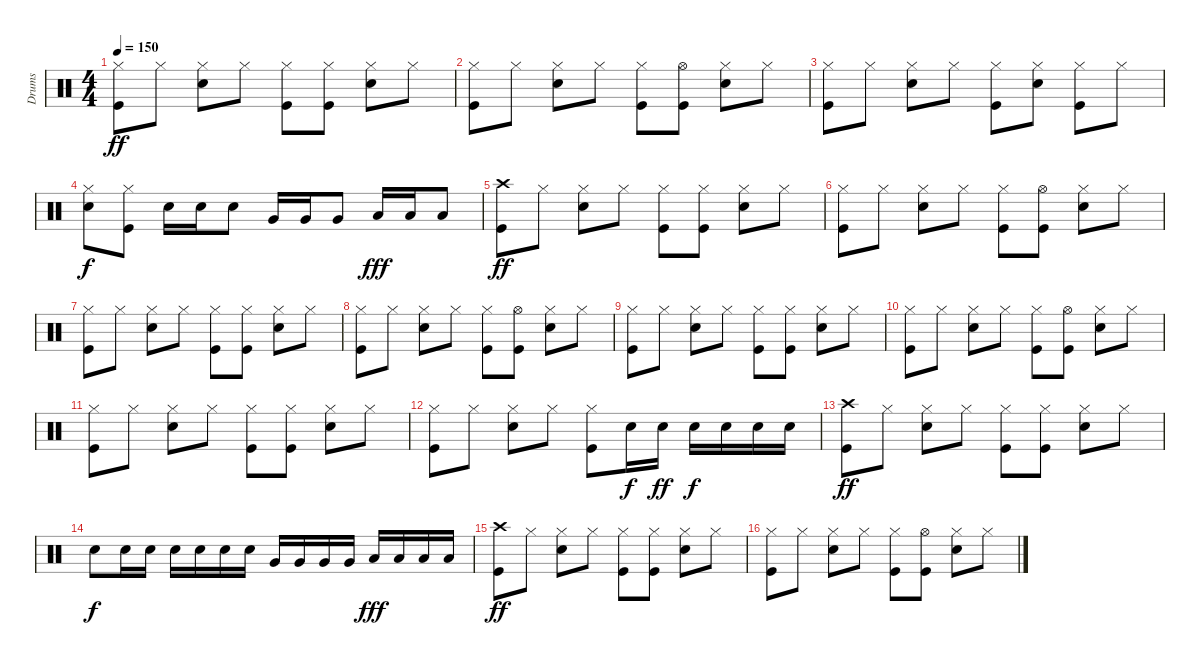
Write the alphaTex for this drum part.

\track ("Drums" "Drums") {instrument percussion}
\staff {score}
\articulation defaults
\ts (4 4)
\tempo 150
\clef neutral
\ks c
("Hi-Hat (closed)" "Kick (hit)").8{dy ff} "Hi-Hat (closed)".8 ("Hi-Hat (closed)" "Snare (hit) 2").8 "Hi-Hat (closed)".8 ("Hi-Hat (closed)" "Kick (hit)").8 ("Hi-Hat (closed)" "Kick (hit)").8 ("Hi-Hat (closed)" "Snare (hit) 2").8 "Hi-Hat (closed)".8 |
("Hi-Hat (closed)" "Kick (hit)").8 "Hi-Hat (closed)".8 ("Hi-Hat (closed)" "Snare (hit) 2").8 "Hi-Hat (closed)".8 ("Hi-Hat (closed)" "Kick (hit)").8 ("Hi-Hat (open)" "Kick (hit)").8 ("Hi-Hat (closed)" "Snare (hit) 2").8 "Hi-Hat (closed)".8 |
("Hi-Hat (closed)" "Kick (hit)").8 "Hi-Hat (closed)".8 ("Hi-Hat (closed)" "Snare (hit) 2").8 "Hi-Hat (closed)".8 ("Hi-Hat (closed)" "Kick (hit)").8 ("Hi-Hat (closed)" "Snare (hit) 2").8 ("Hi-Hat (closed)" "Kick (hit)").8 "Hi-Hat (closed)".8 |
("Hi-Hat (closed)" "Snare (hit) 2").8{dy f} ("Hi-Hat (closed)" "Kick (hit)").8 "Snare (hit) 2".16 "Snare (hit) 2".16 "Snare (hit) 2".8 "Very Low Tom (hit)".16 "Very Low Tom (hit)".16 "Very Low Tom (hit)".8 "Low Floor Tom (hit)".16{dy fff} "Low Floor Tom (hit)".16 "Low Floor Tom (hit)".8 |
("Crash high (hit)" "Kick (hit)").8{dy ff} "Hi-Hat (closed)".8 ("Hi-Hat (closed)" "Snare (hit) 2").8 "Hi-Hat (closed)".8 ("Hi-Hat (closed)" "Kick (hit)").8 ("Hi-Hat (closed)" "Kick (hit)").8 ("Hi-Hat (closed)" "Snare (hit) 2").8 "Hi-Hat (closed)".8 |
("Hi-Hat (closed)" "Kick (hit)").8 "Hi-Hat (closed)".8 ("Hi-Hat (closed)" "Snare (hit) 2").8 "Hi-Hat (closed)".8 ("Hi-Hat (closed)" "Kick (hit)").8 ("Hi-Hat (open)" "Kick (hit)").8 ("Hi-Hat (closed)" "Snare (hit) 2").8 "Hi-Hat (closed)".8 |
("Hi-Hat (closed)" "Kick (hit)").8 "Hi-Hat (closed)".8 ("Hi-Hat (closed)" "Snare (hit) 2").8 "Hi-Hat (closed)".8 ("Hi-Hat (closed)" "Kick (hit)").8 ("Hi-Hat (closed)" "Kick (hit)").8 ("Hi-Hat (closed)" "Snare (hit) 2").8 "Hi-Hat (closed)".8 |
("Hi-Hat (closed)" "Kick (hit)").8 "Hi-Hat (closed)".8 ("Hi-Hat (closed)" "Snare (hit) 2").8 "Hi-Hat (closed)".8 ("Hi-Hat (closed)" "Kick (hit)").8 ("Hi-Hat (open)" "Kick (hit)").8 ("Hi-Hat (closed)" "Snare (hit) 2").8 "Hi-Hat (closed)".8 |
("Hi-Hat (closed)" "Kick (hit)").8 "Hi-Hat (closed)".8 ("Hi-Hat (closed)" "Snare (hit) 2").8 "Hi-Hat (closed)".8 ("Hi-Hat (closed)" "Kick (hit)").8 ("Hi-Hat (closed)" "Kick (hit)").8 ("Hi-Hat (closed)" "Snare (hit) 2").8 "Hi-Hat (closed)".8 |
("Hi-Hat (closed)" "Kick (hit)").8 "Hi-Hat (closed)".8 ("Hi-Hat (closed)" "Snare (hit) 2").8 "Hi-Hat (closed)".8 ("Hi-Hat (closed)" "Kick (hit)").8 ("Hi-Hat (open)" "Kick (hit)").8 ("Hi-Hat (closed)" "Snare (hit) 2").8 "Hi-Hat (closed)".8 |
("Hi-Hat (closed)" "Kick (hit)").8 "Hi-Hat (closed)".8 ("Hi-Hat (closed)" "Snare (hit) 2").8 "Hi-Hat (closed)".8 ("Hi-Hat (closed)" "Kick (hit)").8 ("Hi-Hat (closed)" "Kick (hit)").8 ("Hi-Hat (closed)" "Snare (hit) 2").8 "Hi-Hat (closed)".8 |
("Hi-Hat (closed)" "Kick (hit)").8 "Hi-Hat (closed)".8 ("Hi-Hat (closed)" "Snare (hit) 2").8 "Hi-Hat (closed)".8 ("Hi-Hat (closed)" "Kick (hit)").8 "Snare (hit) 2".16{dy f} "Snare (hit) 2".16{dy ff} "Snare (hit) 2".16{dy f} "Snare (hit) 2".16 "Snare (hit) 2".16 "Snare (hit) 2".16 |
("Crash high (hit)" "Kick (hit)").8{dy ff} "Hi-Hat (closed)".8 ("Hi-Hat (closed)" "Snare (hit) 2").8 "Hi-Hat (closed)".8 ("Hi-Hat (closed)" "Kick (hit)").8 ("Hi-Hat (closed)" "Kick (hit)").8 ("Hi-Hat (closed)" "Snare (hit) 2").8 "Hi-Hat (closed)".8 |
"Snare (hit) 2".8{dy f} "Snare (hit) 2".16 "Snare (hit) 2".16 "Snare (hit) 2".16 "Snare (hit) 2".16 "Snare (hit) 2".16 "Snare (hit) 2".16 "Very Low Tom (hit)".16 "Very Low Tom (hit)".16 "Very Low Tom (hit)".16 "Very Low Tom (hit)".16 "Low Floor Tom (hit)".16{dy fff} "Low Floor Tom (hit)".16 "Low Floor Tom (hit)".16 "Low Floor Tom (hit)".16 |
("Crash high (hit)" "Kick (hit)").8{dy ff} "Hi-Hat (closed)".8 ("Hi-Hat (closed)" "Snare (hit) 2").8 "Hi-Hat (closed)".8 ("Hi-Hat (closed)" "Kick (hit)").8 ("Hi-Hat (closed)" "Kick (hit)").8 ("Hi-Hat (closed)" "Snare (hit) 2").8 "Hi-Hat (closed)".8 |
("Hi-Hat (closed)" "Kick (hit)").8 "Hi-Hat (closed)".8 ("Hi-Hat (closed)" "Snare (hit) 2").8 "Hi-Hat (closed)".8 ("Hi-Hat (closed)" "Kick (hit)").8 ("Hi-Hat (open)" "Kick (hit)").8 ("Hi-Hat (closed)" "Snare (hit) 2").8 "Hi-Hat (closed)".8
